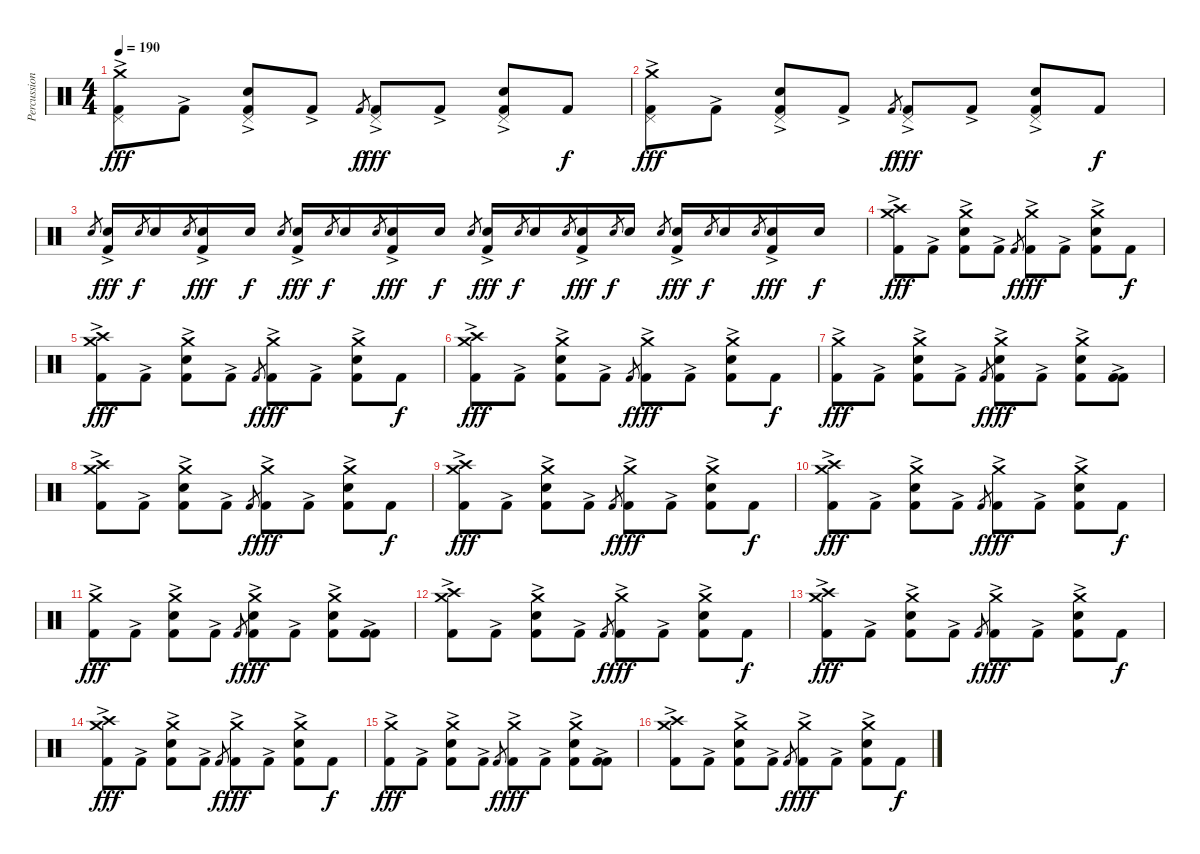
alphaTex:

\track ("Percussions" "Percussion") {instrument percussion}
\staff {score}
\articulation defaults
\ts (4 4)
\tempo 190
\clef neutral
\ks c
("Crash medium (hit)" "Pedal Hi-Hat (hit)" "Kick (hit) 2"{ac}).8{dy fff} "Kick (hit) 2"{ac}.8 ("Pedal Hi-Hat (hit)" "Electric Snare (hit)" "Kick (hit) 2"{ac}).8 "Kick (hit) 2"{ac}.8 "Kick (hit) 2".8{gr dy f} ("Pedal Hi-Hat (hit)" "Kick (hit) 2"{ac}).8{dy fff} "Kick (hit) 2"{ac}.8 ("Pedal Hi-Hat (hit)" "Electric Snare (hit)" "Kick (hit) 2"{ac}).8 "Kick (hit) 2".8{dy f} |
("Crash medium (hit)" "Pedal Hi-Hat (hit)" "Kick (hit) 2"{ac}).8{dy fff} "Kick (hit) 2"{ac}.8 ("Pedal Hi-Hat (hit)" "Electric Snare (hit)" "Kick (hit) 2"{ac}).8 "Kick (hit) 2"{ac}.8 "Kick (hit) 2".8{gr dy f} ("Pedal Hi-Hat (hit)" "Kick (hit) 2"{ac}).8{dy fff} "Kick (hit) 2"{ac}.8 ("Pedal Hi-Hat (hit)" "Electric Snare (hit)" "Kick (hit) 2"{ac}).8 "Kick (hit) 2".8{dy f} |
"Electric Snare (hit)".8{gr} ("Electric Snare (hit)" "Kick (hit) 2"{ac}).16{dy fff} "Electric Snare (hit)".8{gr dy f} "Electric Snare (hit)".16 "Electric Snare (hit)".8{gr} ("Electric Snare (hit)" "Kick (hit) 2"{ac}).16{dy fff} "Electric Snare (hit)".16{dy f} "Electric Snare (hit)".8{gr} ("Electric Snare (hit)" "Kick (hit) 2"{ac}).16{dy fff} "Electric Snare (hit)".8{gr dy f} "Electric Snare (hit)".16 "Electric Snare (hit)".8{gr} ("Electric Snare (hit)" "Kick (hit) 2"{ac}).16{dy fff} "Electric Snare (hit)".16{dy f} "Electric Snare (hit)".8{gr} ("Electric Snare (hit)" "Kick (hit) 2"{ac}).16{dy fff} "Electric Snare (hit)".8{gr dy f} "Electric Snare (hit)".16 "Electric Snare (hit)".8{gr} ("Electric Snare (hit)" "Kick (hit) 2"{ac}).16{dy fff} "Electric Snare (hit)".8{gr dy f} "Electric Snare (hit)".16 "Electric Snare (hit)".8{gr} ("Electric Snare (hit)" "Kick (hit) 2"{ac}).16{dy fff} "Electric Snare (hit)".8{gr dy f} "Electric Snare (hit)".16 "Electric Snare (hit)".8{gr} ("Electric Snare (hit)" "Kick (hit) 2"{ac}).16{dy fff} "Electric Snare (hit)".16{dy f} |
("Crash high (hit)" "Crash medium (hit)" "Kick (hit) 2"{ac}).8{dy fff} "Kick (hit) 2"{ac}.8 ("Crash medium (hit)" "Electric Snare (hit)" "Kick (hit) 2"{ac}).8 "Kick (hit) 2"{ac}.8 "Kick (hit) 2".8{gr dy f} ("Crash medium (hit)" "Kick (hit) 2"{ac}).8{dy fff} "Kick (hit) 2"{ac}.8 ("Crash medium (hit)" "Electric Snare (hit)" "Kick (hit) 2"{ac}).8 "Kick (hit) 2".8{dy f} |
("Crash high (hit)" "Crash medium (hit)" "Kick (hit) 2"{ac}).8{dy fff} "Kick (hit) 2"{ac}.8 ("Crash medium (hit)" "Electric Snare (hit)" "Kick (hit) 2"{ac}).8 "Kick (hit) 2"{ac}.8 "Kick (hit) 2".8{gr dy f} ("Crash medium (hit)" "Kick (hit) 2"{ac}).8{dy fff} "Kick (hit) 2"{ac}.8 ("Crash medium (hit)" "Electric Snare (hit)" "Kick (hit) 2"{ac}).8 "Kick (hit) 2".8{dy f} |
("Crash high (hit)" "Crash medium (hit)" "Kick (hit) 2"{ac}).8{dy fff} "Kick (hit) 2"{ac}.8 ("Crash medium (hit)" "Electric Snare (hit)" "Kick (hit) 2"{ac}).8 "Kick (hit) 2"{ac}.8 "Kick (hit) 2".8{gr dy f} ("Crash medium (hit)" "Kick (hit) 2"{ac}).8{dy fff} "Kick (hit) 2"{ac}.8 ("Crash medium (hit)" "Electric Snare (hit)" "Kick (hit) 2"{ac}).8 "Kick (hit) 2".8{dy f} |
("Crash medium (hit)" "Kick (hit) 2"{ac}).8{dy fff} "Kick (hit) 2"{ac}.8 ("Crash medium (hit)" "Electric Snare (hit)" "Kick (hit) 2"{ac}).8 "Kick (hit) 2"{ac}.8 "Kick (hit) 2".8{gr dy f} ("Crash medium (hit)" "Electric Snare (hit)" "Kick (hit) 2"{ac}).8{dy fff} "Kick (hit) 2"{ac}.8 ("Crash medium (hit)" "Electric Snare (hit)" "Kick (hit) 2"{ac}).8 ("Kick (hit) 2" "Kick (hit) 2"{ac}).8 |
("Crash high (hit)" "Crash medium (hit)" "Kick (hit) 2"{ac}).8 "Kick (hit) 2"{ac}.8 ("Crash medium (hit)" "Electric Snare (hit)" "Kick (hit) 2"{ac}).8 "Kick (hit) 2"{ac}.8 "Kick (hit) 2".8{gr dy f} ("Crash medium (hit)" "Kick (hit) 2"{ac}).8{dy fff} "Kick (hit) 2"{ac}.8 ("Crash medium (hit)" "Electric Snare (hit)" "Kick (hit) 2"{ac}).8 "Kick (hit) 2".8{dy f} |
("Crash high (hit)" "Crash medium (hit)" "Kick (hit) 2"{ac}).8{dy fff} "Kick (hit) 2"{ac}.8 ("Crash medium (hit)" "Electric Snare (hit)" "Kick (hit) 2"{ac}).8 "Kick (hit) 2"{ac}.8 "Kick (hit) 2".8{gr dy f} ("Crash medium (hit)" "Kick (hit) 2"{ac}).8{dy fff} "Kick (hit) 2"{ac}.8 ("Crash medium (hit)" "Electric Snare (hit)" "Kick (hit) 2"{ac}).8 "Kick (hit) 2".8{dy f} |
("Crash high (hit)" "Crash medium (hit)" "Kick (hit) 2"{ac}).8{dy fff} "Kick (hit) 2"{ac}.8 ("Crash medium (hit)" "Electric Snare (hit)" "Kick (hit) 2"{ac}).8 "Kick (hit) 2"{ac}.8 "Kick (hit) 2".8{gr dy f} ("Crash medium (hit)" "Kick (hit) 2"{ac}).8{dy fff} "Kick (hit) 2"{ac}.8 ("Crash medium (hit)" "Electric Snare (hit)" "Kick (hit) 2"{ac}).8 "Kick (hit) 2".8{dy f} |
("Crash medium (hit)" "Kick (hit) 2"{ac}).8{dy fff} "Kick (hit) 2"{ac}.8 ("Crash medium (hit)" "Electric Snare (hit)" "Kick (hit) 2"{ac}).8 "Kick (hit) 2"{ac}.8 "Kick (hit) 2".8{gr dy f} ("Crash medium (hit)" "Electric Snare (hit)" "Kick (hit) 2"{ac}).8{dy fff} "Kick (hit) 2"{ac}.8 ("Crash medium (hit)" "Electric Snare (hit)" "Kick (hit) 2"{ac}).8 ("Kick (hit) 2" "Kick (hit) 2"{ac}).8 |
("Crash high (hit)" "Crash medium (hit)" "Kick (hit) 2"{ac}).8 "Kick (hit) 2"{ac}.8 ("Crash medium (hit)" "Electric Snare (hit)" "Kick (hit) 2"{ac}).8 "Kick (hit) 2"{ac}.8 "Kick (hit) 2".8{gr dy f} ("Crash medium (hit)" "Kick (hit) 2"{ac}).8{dy fff} "Kick (hit) 2"{ac}.8 ("Crash medium (hit)" "Electric Snare (hit)" "Kick (hit) 2"{ac}).8 "Kick (hit) 2".8{dy f} |
("Crash high (hit)" "Crash medium (hit)" "Kick (hit) 2"{ac}).8{dy fff} "Kick (hit) 2"{ac}.8 ("Crash medium (hit)" "Electric Snare (hit)" "Kick (hit) 2"{ac}).8 "Kick (hit) 2"{ac}.8 "Kick (hit) 2".8{gr dy f} ("Crash medium (hit)" "Kick (hit) 2"{ac}).8{dy fff} "Kick (hit) 2"{ac}.8 ("Crash medium (hit)" "Electric Snare (hit)" "Kick (hit) 2"{ac}).8 "Kick (hit) 2".8{dy f} |
("Crash high (hit)" "Crash medium (hit)" "Kick (hit) 2"{ac}).8{dy fff} "Kick (hit) 2"{ac}.8 ("Crash medium (hit)" "Electric Snare (hit)" "Kick (hit) 2"{ac}).8 "Kick (hit) 2"{ac}.8 "Kick (hit) 2".8{gr dy f} ("Crash medium (hit)" "Kick (hit) 2"{ac}).8{dy fff} "Kick (hit) 2"{ac}.8 ("Crash medium (hit)" "Electric Snare (hit)" "Kick (hit) 2"{ac}).8 "Kick (hit) 2".8{dy f} |
("Crash medium (hit)" "Kick (hit) 2"{ac}).8{dy fff} "Kick (hit) 2"{ac}.8 ("Crash medium (hit)" "Electric Snare (hit)" "Kick (hit) 2"{ac}).8 "Kick (hit) 2"{ac}.8 "Kick (hit) 2".8{gr dy f} ("Crash medium (hit)" "Kick (hit) 2"{ac}).8{dy fff} "Kick (hit) 2"{ac}.8 ("Crash medium (hit)" "Electric Snare (hit)" "Kick (hit) 2"{ac}).8 ("Kick (hit) 2" "Kick (hit) 2"{ac}).8 |
("Crash high (hit)" "Crash medium (hit)" "Kick (hit) 2"{ac}).8 "Kick (hit) 2"{ac}.8 ("Crash medium (hit)" "Electric Snare (hit)" "Kick (hit) 2"{ac}).8 "Kick (hit) 2"{ac}.8 "Kick (hit) 2".8{gr dy f} ("Crash medium (hit)" "Kick (hit) 2"{ac}).8{dy fff} "Kick (hit) 2"{ac}.8 ("Crash medium (hit)" "Electric Snare (hit)" "Kick (hit) 2"{ac}).8 "Kick (hit) 2".8{dy f}
